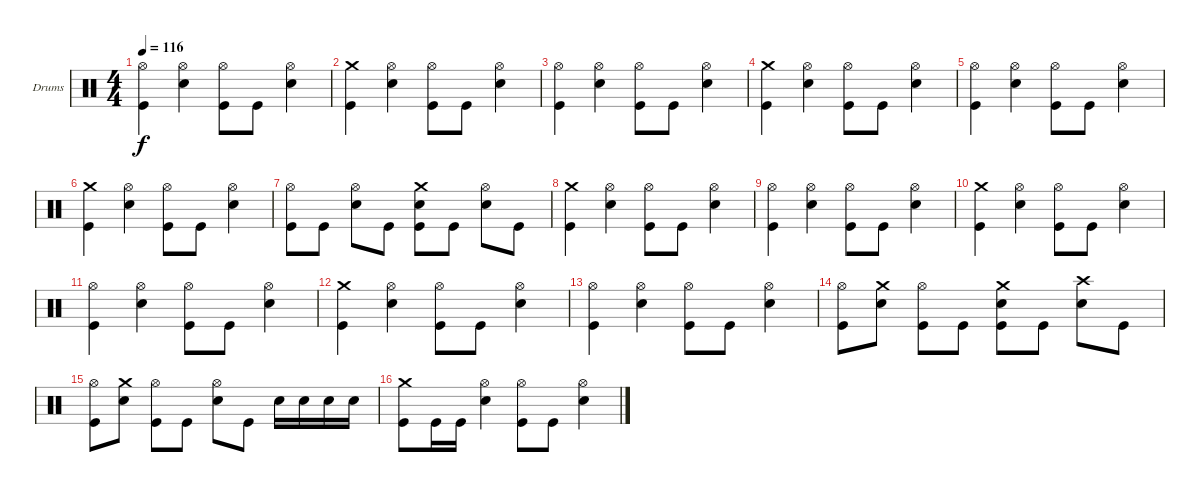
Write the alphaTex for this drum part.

\defaultSystemsLayout 4
\bracketExtendMode nobrackets
\firstSystemTrackNameOrientation horizontal
\otherSystemsTrackNameOrientation horizontal
\track ("Dave Abbruzzese" "Drums") {solo instrument percussion}
\staff {score}
\articulation defaults
\ts (4 4)
\tempo 116
\clef neutral
\ks c
("Hi-Hat (open)" "Kick (hit)").4{dy f} ("Hi-Hat (open)" "Snare (hit) 2").4 ("Hi-Hat (open)" "Kick (hit)").8 "Kick (hit)".8 ("Hi-Hat (open)" "Snare (hit) 2").4 |
("Crash medium (hit)" "Kick (hit)").4 ("Hi-Hat (open)" "Snare (hit) 2").4 ("Hi-Hat (open)" "Kick (hit)").8 "Kick (hit)".8 ("Hi-Hat (open)" "Snare (hit) 2").4 |
("Hi-Hat (open)" "Kick (hit)").4 ("Hi-Hat (open)" "Snare (hit) 2").4 ("Hi-Hat (open)" "Kick (hit)").8 "Kick (hit)".8 ("Hi-Hat (open)" "Snare (hit) 2").4 |
("Crash medium (hit)" "Kick (hit)").4 ("Hi-Hat (open)" "Snare (hit) 2").4 ("Hi-Hat (open)" "Kick (hit)").8 "Kick (hit)".8 ("Hi-Hat (open)" "Snare (hit) 2").4 |
("Hi-Hat (open)" "Kick (hit)").4 ("Hi-Hat (open)" "Snare (hit) 2").4 ("Hi-Hat (open)" "Kick (hit)").8 "Kick (hit)".8 ("Hi-Hat (open)" "Snare (hit) 2").4 |
("Crash medium (hit)" "Kick (hit)").4 ("Hi-Hat (open)" "Snare (hit) 2").4 ("Hi-Hat (open)" "Kick (hit)").8 "Kick (hit)".8 ("Hi-Hat (open)" "Snare (hit) 2").4 |
("Hi-Hat (open)" "Kick (hit)").8 "Kick (hit)".8 ("Hi-Hat (open)" "Snare (hit) 2").8 "Kick (hit)".8 ("Crash medium (hit)" "Snare (hit) 2" "Kick (hit)").8 "Kick (hit)".8 ("Hi-Hat (open)" "Snare (hit) 2").8 "Kick (hit)".8 |
("Crash medium (hit)" "Kick (hit)").4 ("Hi-Hat (open)" "Snare (hit) 2").4 ("Hi-Hat (open)" "Kick (hit)").8 "Kick (hit)".8 ("Hi-Hat (open)" "Snare (hit) 2").4 |
("Hi-Hat (open)" "Kick (hit)").4 ("Hi-Hat (open)" "Snare (hit) 2").4 ("Hi-Hat (open)" "Kick (hit)").8 "Kick (hit)".8 ("Hi-Hat (open)" "Snare (hit) 2").4 |
("Crash medium (hit)" "Kick (hit)").4 ("Hi-Hat (open)" "Snare (hit) 2").4 ("Hi-Hat (open)" "Kick (hit)").8 "Kick (hit)".8 ("Hi-Hat (open)" "Snare (hit) 2").4 |
("Hi-Hat (open)" "Kick (hit)").4 ("Hi-Hat (open)" "Snare (hit) 2").4 ("Hi-Hat (open)" "Kick (hit)").8 "Kick (hit)".8 ("Hi-Hat (open)" "Snare (hit) 2").4 |
("Crash medium (hit)" "Kick (hit)").4 ("Hi-Hat (open)" "Snare (hit) 2").4 ("Hi-Hat (open)" "Kick (hit)").8 "Kick (hit)".8 ("Hi-Hat (open)" "Snare (hit) 2").4 |
("Hi-Hat (open)" "Kick (hit)").4 ("Hi-Hat (open)" "Snare (hit) 2").4 ("Hi-Hat (open)" "Kick (hit)").8 "Kick (hit)".8 ("Hi-Hat (open)" "Snare (hit) 2").4 |
("Hi-Hat (open)" "Kick (hit)").8 ("Crash medium (hit)" "Snare (hit) 2").8 ("Hi-Hat (open)" "Kick (hit)").8 "Kick (hit)".8 ("Crash medium (hit)" "Snare (hit) 2" "Kick (hit)").8 "Kick (hit)".8 ("Crash high (hit)" "Snare (hit) 2").8 "Kick (hit)".8 |
("Hi-Hat (open)" "Kick (hit)").8 ("Crash medium (hit)" "Snare (hit) 2").8 ("Hi-Hat (open)" "Kick (hit)").8 "Kick (hit)".8 ("Hi-Hat (open)" "Snare (hit) 2").8 "Kick (hit)".8 "Snare (hit) 2".16 "Snare (hit) 2".16 "Snare (hit) 2".16 "Snare (hit) 2".16 |
("Crash medium (hit)" "Kick (hit)").8 "Kick (hit)".16 "Kick (hit)".16 ("Hi-Hat (open)" "Snare (hit) 2").4 ("Hi-Hat (open)" "Kick (hit)").8 "Kick (hit)".8 ("Hi-Hat (open)" "Snare (hit) 2").4
